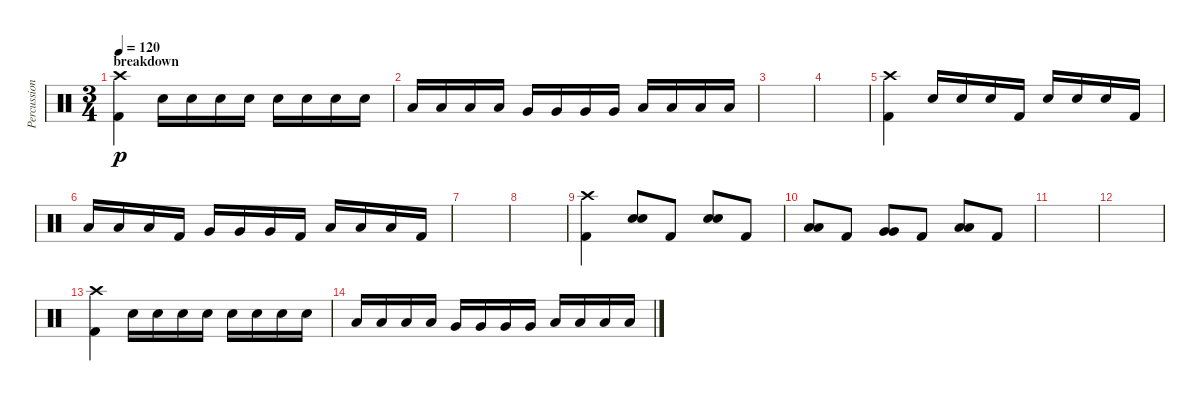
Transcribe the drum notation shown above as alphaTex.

\track ("Percussion" "Percussion") {instrument percussion}
\staff {score}
\articulation defaults
\ts (3 4)
\section ("" "breakdown")
\tempo 120
\clef neutral
\ks c
("Crash high (hit)" "Kick (hit) 2").4{dy p} "Snare (hit) 2".16 "Snare (hit) 2".16 "Snare (hit) 2".16 "Snare (hit) 2".16 "Snare (hit) 2".16 "Snare (hit) 2".16 "Snare (hit) 2".16 "Snare (hit) 2".16 |
"Low Tom (hit)".16 "Low Tom (hit)".16 "Low Tom (hit)".16 "Low Tom (hit)".16 "Very Low Tom (hit)".16 "Very Low Tom (hit)".16 "Very Low Tom (hit)".16 "Very Low Tom (hit)".16 "Low Floor Tom (hit)".16 "Low Floor Tom (hit)".16 "Low Floor Tom (hit)".16 "Low Floor Tom (hit)".16 |
|
|
("Crash high (hit)" "Kick (hit) 2").4 "Snare (hit) 2".16 "Snare (hit) 2".16 "Snare (hit) 2".16 "Kick (hit) 2".16 "Snare (hit) 2".16 "Snare (hit) 2".16 "Snare (hit) 2".16 "Kick (hit) 2".16 |
"Low Tom (hit)".16 "Low Tom (hit)".16 "Low Tom (hit)".16 "Kick (hit) 2".16 "Very Low Tom (hit)".16 "Very Low Tom (hit)".16 "Very Low Tom (hit)".16 "Kick (hit) 2".16 "Low Floor Tom (hit)".16 "Low Floor Tom (hit)".16 "Low Floor Tom (hit)".16 "Kick (hit) 2".16 |
|
|
("Crash high (hit)" "Kick (hit) 2").4 ("Snare (hit) 2" "Snare (hit) 2").8 "Kick (hit) 2".8 ("Snare (hit) 2" "Snare (hit) 2").8 "Kick (hit) 2".8 |
("Low Tom (hit)" "Low Tom (hit)").8 "Kick (hit) 2".8 ("Very Low Tom (hit)" "Very Low Tom (hit)").8 "Kick (hit) 2".8 ("Low Floor Tom (hit)" "Low Floor Tom (hit)").8 "Kick (hit) 2".8 |
|
|
("Crash high (hit)" "Kick (hit) 2").4 "Snare (hit) 2".16 "Snare (hit) 2".16 "Snare (hit) 2".16 "Snare (hit) 2".16 "Snare (hit) 2".16 "Snare (hit) 2".16 "Snare (hit) 2".16 "Snare (hit) 2".16 |
"Low Tom (hit)".16 "Low Tom (hit)".16 "Low Tom (hit)".16 "Low Tom (hit)".16 "Very Low Tom (hit)".16 "Very Low Tom (hit)".16 "Very Low Tom (hit)".16 "Very Low Tom (hit)".16 "Low Floor Tom (hit)".16 "Low Floor Tom (hit)".16 "Low Floor Tom (hit)".16 "Low Floor Tom (hit)".16
